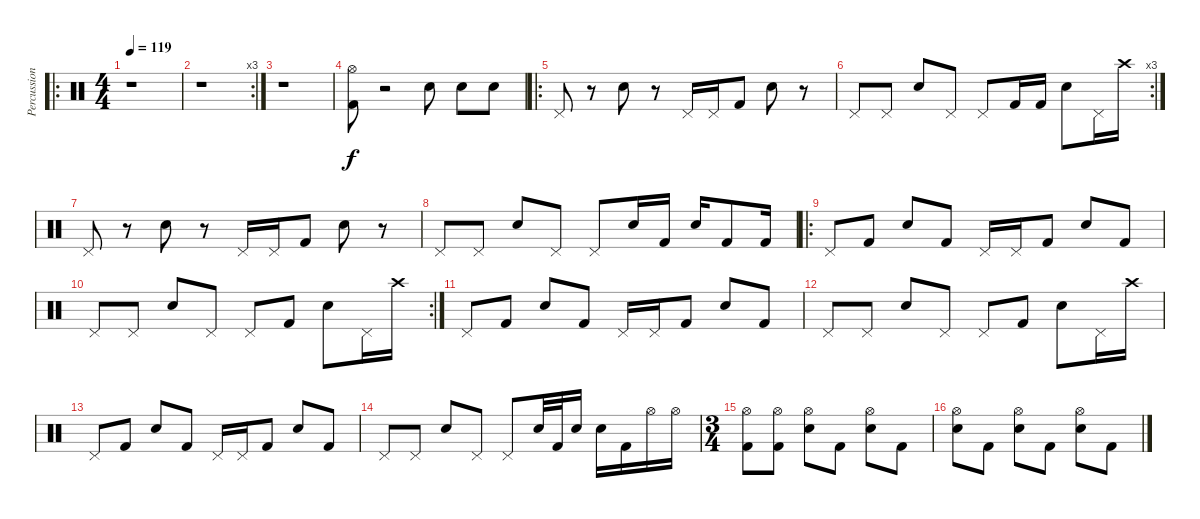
\track ("Percussion" "Percussion") {instrument percussion}
\staff {score}
\articulation defaults
\ro
\ts (4 4)
\tempo 119
\clef neutral
\ks c
r.1{dy f} |
\rc 3
r.1 |
r.1 |
("Hi-Hat (open)" "Kick (hit) 2").8 r.2 "Electric Snare (hit)".8 "Electric Snare (hit)".8 "Electric Snare (hit)".8 |
\ro "Pedal Hi-Hat (hit)".8
r.8 "Electric Snare (hit)".8 r.8 "Pedal Hi-Hat (hit)".16 "Pedal Hi-Hat (hit)".16 "Kick (hit) 2".8 "Electric Snare (hit)".8 r.8 |
\rc 3 "Pedal Hi-Hat (hit)".8 "Pedal Hi-Hat (hit)".8 "Electric Snare (hit)".8 "Pedal Hi-Hat (hit)".8 "Pedal Hi-Hat (hit)".8 "Kick (hit) 2".16 "Kick (hit) 2".16 "Electric Snare (hit)".8 "Pedal Hi-Hat (hit)".16 "Crash high (hit)".16
|
"Pedal Hi-Hat (hit)".8 r.8 "Electric Snare (hit)".8 r.8 "Pedal Hi-Hat (hit)".16 "Pedal Hi-Hat (hit)".16 "Kick (hit) 2".8 "Electric Snare (hit)".8 r.8 |
"Pedal Hi-Hat (hit)".8 "Pedal Hi-Hat (hit)".8 "Electric Snare (hit)".8 "Pedal Hi-Hat (hit)".8 "Pedal Hi-Hat (hit)".8 "Electric Snare (hit)".16 "Kick (hit) 2".16 "Electric Snare (hit)".16 "Kick (hit) 2".8 "Kick (hit) 2".16 |
\ro "Pedal Hi-Hat (hit)".8 "Kick (hit) 2".8 "Electric Snare (hit)".8 "Kick (hit) 2".8 "Pedal Hi-Hat (hit)".16 "Pedal Hi-Hat (hit)".16 "Kick (hit) 2".8 "Electric Snare (hit)".8 "Kick (hit) 2".8
|
\rc 2 "Pedal Hi-Hat (hit)".8 "Pedal Hi-Hat (hit)".8 "Electric Snare (hit)".8 "Pedal Hi-Hat (hit)".8 "Pedal Hi-Hat (hit)".8 "Kick (hit) 2".8 "Electric Snare (hit)".8 "Pedal Hi-Hat (hit)".16 "Crash high (hit)".16
|
"Pedal Hi-Hat (hit)".8 "Kick (hit) 2".8 "Electric Snare (hit)".8 "Kick (hit) 2".8 "Pedal Hi-Hat (hit)".16 "Pedal Hi-Hat (hit)".16 "Kick (hit) 2".8 "Electric Snare (hit)".8 "Kick (hit) 2".8 |
"Pedal Hi-Hat (hit)".8 "Pedal Hi-Hat (hit)".8 "Electric Snare (hit)".8 "Pedal Hi-Hat (hit)".8 "Pedal Hi-Hat (hit)".8 "Kick (hit) 2".8 "Electric Snare (hit)".8 "Pedal Hi-Hat (hit)".16 "Crash high (hit)".16 |
"Pedal Hi-Hat (hit)".8 "Kick (hit) 2".8 "Electric Snare (hit)".8 "Kick (hit) 2".8 "Pedal Hi-Hat (hit)".16 "Pedal Hi-Hat (hit)".16 "Kick (hit) 2".8 "Electric Snare (hit)".8 "Kick (hit) 2".8 |
"Pedal Hi-Hat (hit)".8 "Pedal Hi-Hat (hit)".8 "Electric Snare (hit)".8 "Pedal Hi-Hat (hit)".8 "Pedal Hi-Hat (hit)".8 "Electric Snare (hit)".32 "Kick (hit) 2".32 "Electric Snare (hit)".16 "Electric Snare (hit)".16 "Kick (hit) 2".16 "Hi-Hat (open)".16 "Hi-Hat (open)".16 |
\ts (3 4)
("Hi-Hat (open)" "Kick (hit) 2").8 ("Hi-Hat (open)" "Kick (hit) 2").8 ("Hi-Hat (open)" "Electric Snare (hit)").8 "Kick (hit) 2".8 ("Hi-Hat (open)" "Electric Snare (hit)").8 "Kick (hit) 2".8 |
("Hi-Hat (open)" "Electric Snare (hit)").8 "Kick (hit) 2".8 ("Hi-Hat (open)" "Electric Snare (hit)").8 "Kick (hit) 2".8 ("Hi-Hat (open)" "Electric Snare (hit)").8 "Kick (hit) 2".8
